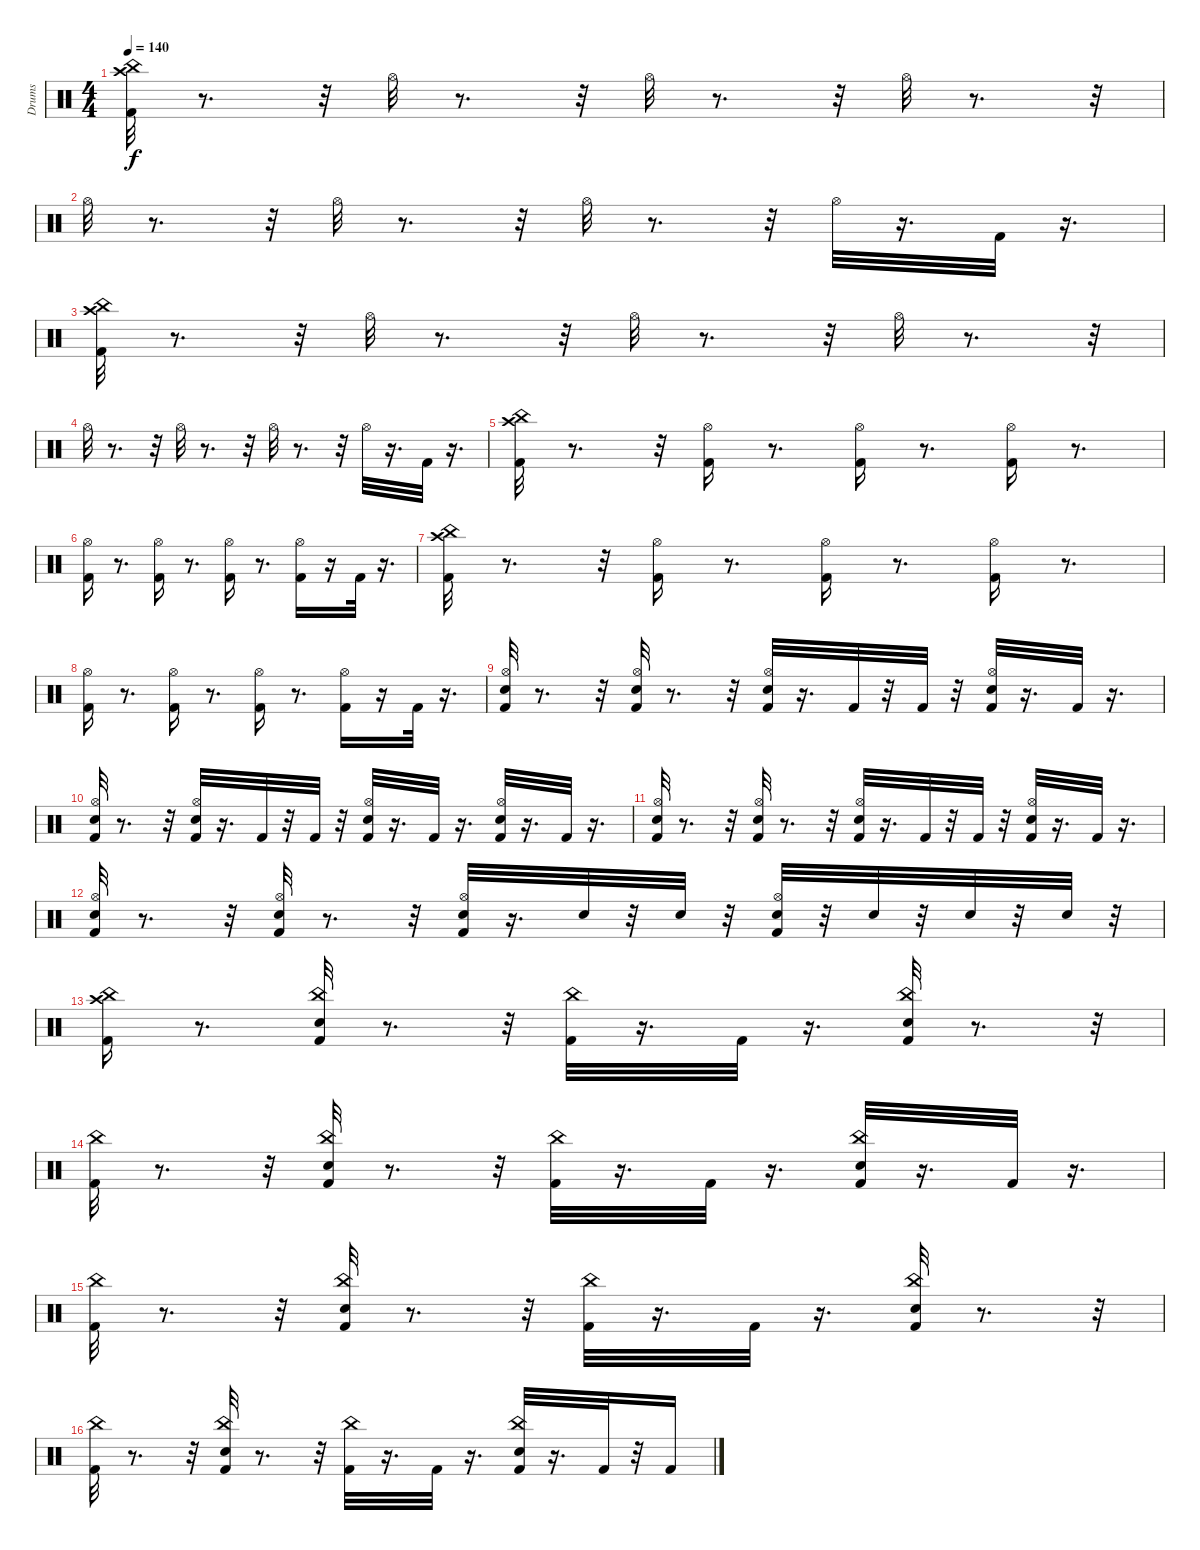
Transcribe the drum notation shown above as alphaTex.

\track ("Drums" "Drums") {instrument percussion}
\staff {score}
\articulation defaults
\ts (4 4)
\tempo 140
\clef neutral
\ks c
("Kick (hit) 2" "Crash high (hit)" "China (hit)").32{dy f} r.8{d} r.32 "Hi-Hat (open)".32 r.8{d} r.32 "Hi-Hat (open)".32 r.8{d} r.32 "Hi-Hat (open)".32 r.8{d} r.32 |
"Hi-Hat (open)".32 r.8{d} r.32 "Hi-Hat (open)".32 r.8{d} r.32 "Hi-Hat (open)".32 r.8{d} r.32 "Hi-Hat (open)".32 r.16{d} "Kick (hit) 2".32 r.16{d} |
("Kick (hit) 2" "Crash high (hit)" "China (hit)").32 r.8{d} r.32 "Hi-Hat (open)".32 r.8{d} r.32 "Hi-Hat (open)".32 r.8{d} r.32 "Hi-Hat (open)".32 r.8{d} r.32 |
"Hi-Hat (open)".32 r.8{d} r.32 "Hi-Hat (open)".32 r.8{d} r.32 "Hi-Hat (open)".32 r.8{d} r.32 "Hi-Hat (open)".32 r.16{d} "Kick (hit) 2".32 r.16{d} |
("Kick (hit) 2" "Crash high (hit)" "China (hit)").32 r.8{d} r.32 ("Kick (hit) 2" "Hi-Hat (open)").16 r.8{d} ("Kick (hit) 2" "Hi-Hat (open)").16 r.8{d} ("Kick (hit) 2" "Hi-Hat (open)").16 r.8{d} |
("Kick (hit) 2" "Hi-Hat (open)").16 r.8{d} ("Kick (hit) 2" "Hi-Hat (open)").16 r.8{d} ("Kick (hit) 2" "Hi-Hat (open)").16 r.8{d} ("Kick (hit) 2" "Hi-Hat (open)").16 r.16 "Kick (hit) 2".32 r.16{d} |
("Kick (hit) 2" "Crash high (hit)" "China (hit)").32 r.8{d} r.32 ("Kick (hit) 2" "Hi-Hat (open)").16 r.8{d} ("Kick (hit) 2" "Hi-Hat (open)").16 r.8{d} ("Kick (hit) 2" "Hi-Hat (open)").16 r.8{d} |
("Kick (hit) 2" "Hi-Hat (open)").16 r.8{d} ("Kick (hit) 2" "Hi-Hat (open)").16 r.8{d} ("Kick (hit) 2" "Hi-Hat (open)").16 r.8{d} ("Kick (hit) 2" "Hi-Hat (open)").16 r.16 "Kick (hit) 2".32 r.16{d} |
("Kick (hit) 2" "Snare (hit) 2" "Hi-Hat (open)").32 r.8{d} r.32 ("Kick (hit) 2" "Snare (hit) 2" "Hi-Hat (open)").32 r.8{d} r.32 ("Kick (hit) 2" "Snare (hit) 2" "Hi-Hat (open)").32 r.16{d} "Kick (hit) 2".32 r.32 "Kick (hit) 2".32 r.32 ("Kick (hit) 2" "Snare (hit) 2" "Hi-Hat (open)").32 r.16{d} "Kick (hit) 2".32 r.16{d} |
("Kick (hit) 2" "Snare (hit) 2" "Hi-Hat (open)").32 r.8{d} r.32 ("Kick (hit) 2" "Snare (hit) 2" "Hi-Hat (open)").32 r.16{d} "Kick (hit) 2".32 r.32 "Kick (hit) 2".32 r.32 ("Kick (hit) 2" "Snare (hit) 2" "Hi-Hat (open)").32 r.16{d} "Kick (hit) 2".32 r.16{d} ("Kick (hit) 2" "Snare (hit) 2" "Hi-Hat (open)").32 r.16{d} "Kick (hit) 2".32 r.16{d} |
("Kick (hit) 2" "Snare (hit) 2" "Hi-Hat (open)").32 r.8{d} r.32 ("Kick (hit) 2" "Snare (hit) 2" "Hi-Hat (open)").32 r.8{d} r.32 ("Kick (hit) 2" "Snare (hit) 2" "Hi-Hat (open)").32 r.16{d} "Kick (hit) 2".32 r.32 "Kick (hit) 2".32 r.32 ("Kick (hit) 2" "Snare (hit) 2" "Hi-Hat (open)").32 r.16{d} "Kick (hit) 2".32 r.16{d} |
("Kick (hit) 2" "Snare (hit) 2" "Hi-Hat (open)").32 r.8{d} r.32 ("Kick (hit) 2" "Snare (hit) 2" "Hi-Hat (open)").32 r.8{d} r.32 ("Kick (hit) 2" "Snare (hit) 2" "Hi-Hat (open)").32 r.16{d} "Snare (hit) 2".32 r.32 "Snare (hit) 2".32 r.32 ("Kick (hit) 2" "Snare (hit) 2" "Hi-Hat (open)").32 r.32 "Snare (hit) 2".32 r.32 "Snare (hit) 2".32 r.32 "Snare (hit) 2".32 r.32 |
("Kick (hit) 2" "Crash high (hit)" "China (hit)").16 r.8{d} ("Kick (hit) 2" "Snare (hit) 2" "China (hit)").32 r.8{d} r.32 ("Kick (hit) 2" "China (hit)").32 r.16{d} "Kick (hit) 2".32 r.16{d} ("Kick (hit) 2" "Snare (hit) 2" "China (hit)").32 r.8{d} r.32 |
("Kick (hit) 2" "China (hit)").32 r.8{d} r.32 ("Kick (hit) 2" "Snare (hit) 2" "China (hit)").32 r.8{d} r.32 ("Kick (hit) 2" "China (hit)").32 r.16{d} "Kick (hit) 2".32 r.16{d} ("Kick (hit) 2" "Snare (hit) 2" "China (hit)").32 r.16{d} "Kick (hit) 2".32 r.16{d} |
("Kick (hit) 2" "China (hit)").32 r.8{d} r.32 ("Kick (hit) 2" "Snare (hit) 2" "China (hit)").32 r.8{d} r.32 ("Kick (hit) 2" "China (hit)").32 r.16{d} "Kick (hit) 2".32 r.16{d} ("Kick (hit) 2" "Snare (hit) 2" "China (hit)").32 r.8{d} r.32 |
("Kick (hit) 2" "China (hit)").32 r.8{d} r.32 ("Kick (hit) 2" "Snare (hit) 2" "China (hit)").32 r.8{d} r.32 ("Kick (hit) 2" "China (hit)").32 r.16{d} "Kick (hit) 2".32 r.16{d} ("Kick (hit) 2" "Snare (hit) 2" "China (hit)").32 r.16{d} "Kick (hit) 2".32 r.32 "Kick (hit) 2".16
